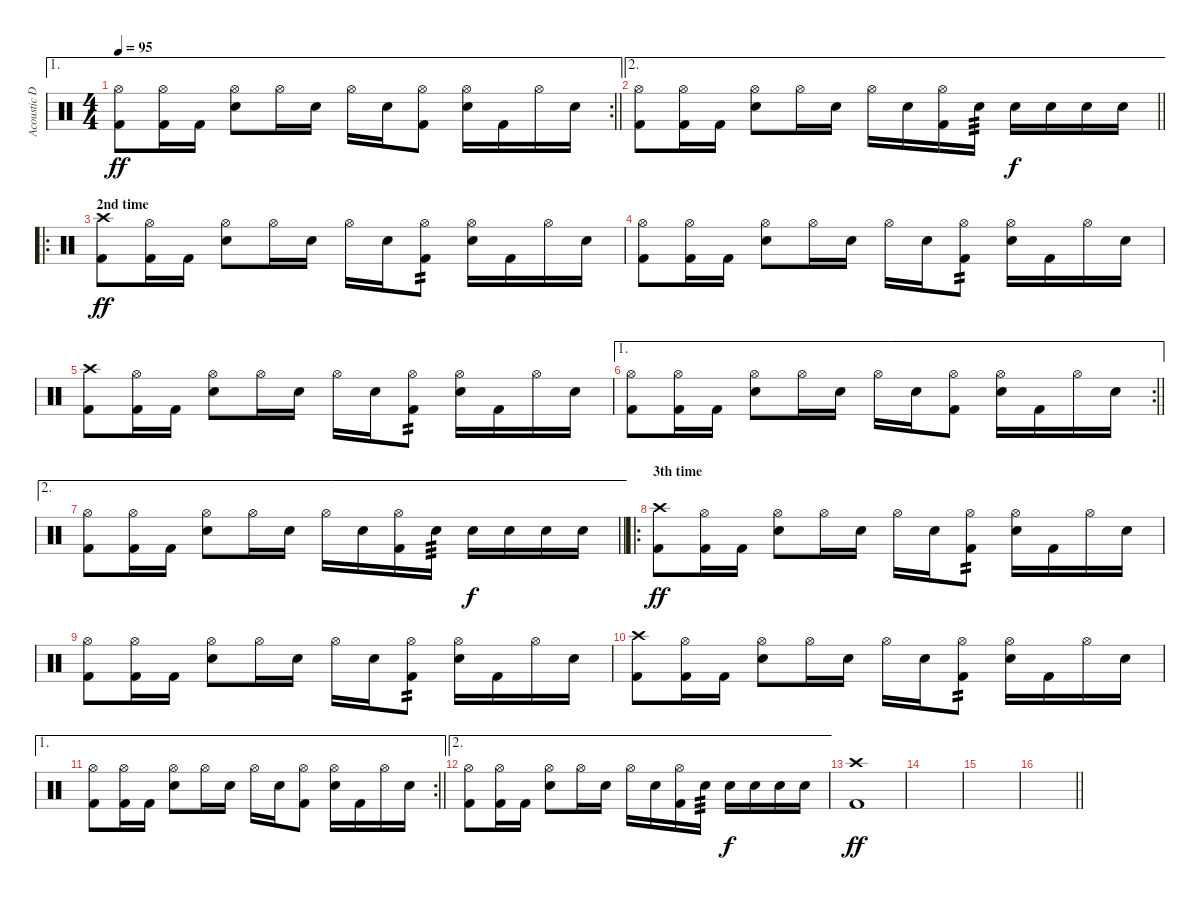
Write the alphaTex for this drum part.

\track ("Acoustic Drums" "Acoustic D") {instrument percussion}
\staff {score}
\articulation defaults
\ae 1
\rc 2
\ts (4 4)
\tempo 95
\clef neutral
\barLineRight lightlight
\ks c
("Hi-Hat (open)" "Kick (hit) 2").8{dy ff} ("Hi-Hat (open)" "Kick (hit) 2").16 "Kick (hit) 2".16 ("Hi-Hat (open)" "Electric Snare (hit)").8 "Hi-Hat (open)".16 "Electric Snare (hit)".16 "Hi-Hat (open)".16 "Electric Snare (hit)".16 ("Hi-Hat (open)" "Kick (hit) 2").8 ("Hi-Hat (open)" "Electric Snare (hit)").16 "Kick (hit) 2".16 "Hi-Hat (open)".16 "Electric Snare (hit)".16 |
\ae 2
\barLineRight lightlight
("Hi-Hat (open)" "Kick (hit) 2").8 ("Hi-Hat (open)" "Kick (hit) 2").16 "Kick (hit) 2".16 ("Hi-Hat (open)" "Electric Snare (hit)").8 "Hi-Hat (open)".16 "Electric Snare (hit)".16 "Hi-Hat (open)".16 "Electric Snare (hit)".16 ("Hi-Hat (open)" "Kick (hit) 2").16 "Electric Snare (hit)".16{tp 3} "Electric Snare (hit)".16{dy f} "Electric Snare (hit)".16 "Electric Snare (hit)".16 "Electric Snare (hit)".16 |
\ro
\section ("" "2nd time")
("Crash high (hit)" "Kick (hit) 2").8{dy ff} ("Hi-Hat (open)" "Kick (hit) 2").16 "Kick (hit) 2".16 ("Hi-Hat (open)" "Electric Snare (hit)").8 "Hi-Hat (open)".16 "Electric Snare (hit)".16 "Hi-Hat (open)".16 "Electric Snare (hit)".16 ("Hi-Hat (open)" "Kick (hit) 2").8{tp 2} ("Hi-Hat (open)" "Electric Snare (hit)").16 "Kick (hit) 2".16 "Hi-Hat (open)".16 "Electric Snare (hit)".16 |
("Hi-Hat (open)" "Kick (hit) 2").8 ("Hi-Hat (open)" "Kick (hit) 2").16 "Kick (hit) 2".16 ("Hi-Hat (open)" "Electric Snare (hit)").8 "Hi-Hat (open)".16 "Electric Snare (hit)".16 "Hi-Hat (open)".16 "Electric Snare (hit)".16 ("Hi-Hat (open)" "Kick (hit) 2").8{tp 2} ("Hi-Hat (open)" "Electric Snare (hit)").16 "Kick (hit) 2".16 "Hi-Hat (open)".16 "Electric Snare (hit)".16 |
("Crash high (hit)" "Kick (hit) 2").8 ("Hi-Hat (open)" "Kick (hit) 2").16 "Kick (hit) 2".16 ("Hi-Hat (open)" "Electric Snare (hit)").8 "Hi-Hat (open)".16 "Electric Snare (hit)".16 "Hi-Hat (open)".16 "Electric Snare (hit)".16 ("Hi-Hat (open)" "Kick (hit) 2").8{tp 2} ("Hi-Hat (open)" "Electric Snare (hit)").16 "Kick (hit) 2".16 "Hi-Hat (open)".16 "Electric Snare (hit)".16 |
\ae 1
\rc 2
\barLineRight lightlight
("Hi-Hat (open)" "Kick (hit) 2").8 ("Hi-Hat (open)" "Kick (hit) 2").16 "Kick (hit) 2".16 ("Hi-Hat (open)" "Electric Snare (hit)").8 "Hi-Hat (open)".16 "Electric Snare (hit)".16 "Hi-Hat (open)".16 "Electric Snare (hit)".16 ("Hi-Hat (open)" "Kick (hit) 2").8 ("Hi-Hat (open)" "Electric Snare (hit)").16 "Kick (hit) 2".16 "Hi-Hat (open)".16 "Electric Snare (hit)".16 |
\ae 2
\barLineRight lightlight
("Hi-Hat (open)" "Kick (hit) 2").8 ("Hi-Hat (open)" "Kick (hit) 2").16 "Kick (hit) 2".16 ("Hi-Hat (open)" "Electric Snare (hit)").8 "Hi-Hat (open)".16 "Electric Snare (hit)".16 "Hi-Hat (open)".16 "Electric Snare (hit)".16 ("Hi-Hat (open)" "Kick (hit) 2").16 "Electric Snare (hit)".16{tp 3} "Electric Snare (hit)".16{dy f} "Electric Snare (hit)".16 "Electric Snare (hit)".16 "Electric Snare (hit)".16 |
\ro
\section ("" "3th time")
("Crash high (hit)" "Kick (hit) 2").8{dy ff} ("Hi-Hat (open)" "Kick (hit) 2").16 "Kick (hit) 2".16 ("Hi-Hat (open)" "Electric Snare (hit)").8 "Hi-Hat (open)".16 "Electric Snare (hit)".16 "Hi-Hat (open)".16 "Electric Snare (hit)".16 ("Hi-Hat (open)" "Kick (hit) 2").8{tp 2} ("Hi-Hat (open)" "Electric Snare (hit)").16 "Kick (hit) 2".16 "Hi-Hat (open)".16 "Electric Snare (hit)".16 |
("Hi-Hat (open)" "Kick (hit) 2").8 ("Hi-Hat (open)" "Kick (hit) 2").16 "Kick (hit) 2".16 ("Hi-Hat (open)" "Electric Snare (hit)").8 "Hi-Hat (open)".16 "Electric Snare (hit)".16 "Hi-Hat (open)".16 "Electric Snare (hit)".16 ("Hi-Hat (open)" "Kick (hit) 2").8{tp 2} ("Hi-Hat (open)" "Electric Snare (hit)").16 "Kick (hit) 2".16 "Hi-Hat (open)".16 "Electric Snare (hit)".16 |
("Crash high (hit)" "Kick (hit) 2").8 ("Hi-Hat (open)" "Kick (hit) 2").16 "Kick (hit) 2".16 ("Hi-Hat (open)" "Electric Snare (hit)").8 "Hi-Hat (open)".16 "Electric Snare (hit)".16 "Hi-Hat (open)".16 "Electric Snare (hit)".16 ("Hi-Hat (open)" "Kick (hit) 2").8{tp 2} ("Hi-Hat (open)" "Electric Snare (hit)").16 "Kick (hit) 2".16 "Hi-Hat (open)".16 "Electric Snare (hit)".16 |
\ae 1
\rc 2
\barLineRight lightlight
("Hi-Hat (open)" "Kick (hit) 2").8 ("Hi-Hat (open)" "Kick (hit) 2").16 "Kick (hit) 2".16 ("Hi-Hat (open)" "Electric Snare (hit)").8 "Hi-Hat (open)".16 "Electric Snare (hit)".16 "Hi-Hat (open)".16 "Electric Snare (hit)".16 ("Hi-Hat (open)" "Kick (hit) 2").8 ("Hi-Hat (open)" "Electric Snare (hit)").16 "Kick (hit) 2".16 "Hi-Hat (open)".16 "Electric Snare (hit)".16 |
\ae 2
("Hi-Hat (open)" "Kick (hit) 2").8 ("Hi-Hat (open)" "Kick (hit) 2").16 "Kick (hit) 2".16 ("Hi-Hat (open)" "Electric Snare (hit)").8 "Hi-Hat (open)".16 "Electric Snare (hit)".16 "Hi-Hat (open)".16 "Electric Snare (hit)".16 ("Hi-Hat (open)" "Kick (hit) 2").16 "Electric Snare (hit)".16{tp 3} "Electric Snare (hit)".16{dy f} "Electric Snare (hit)".16 "Electric Snare (hit)".16 "Electric Snare (hit)".16 |
("Crash high (hit)" "Kick (hit) 2").1{dy ff} |
|
|
\barLineRight lightlight
